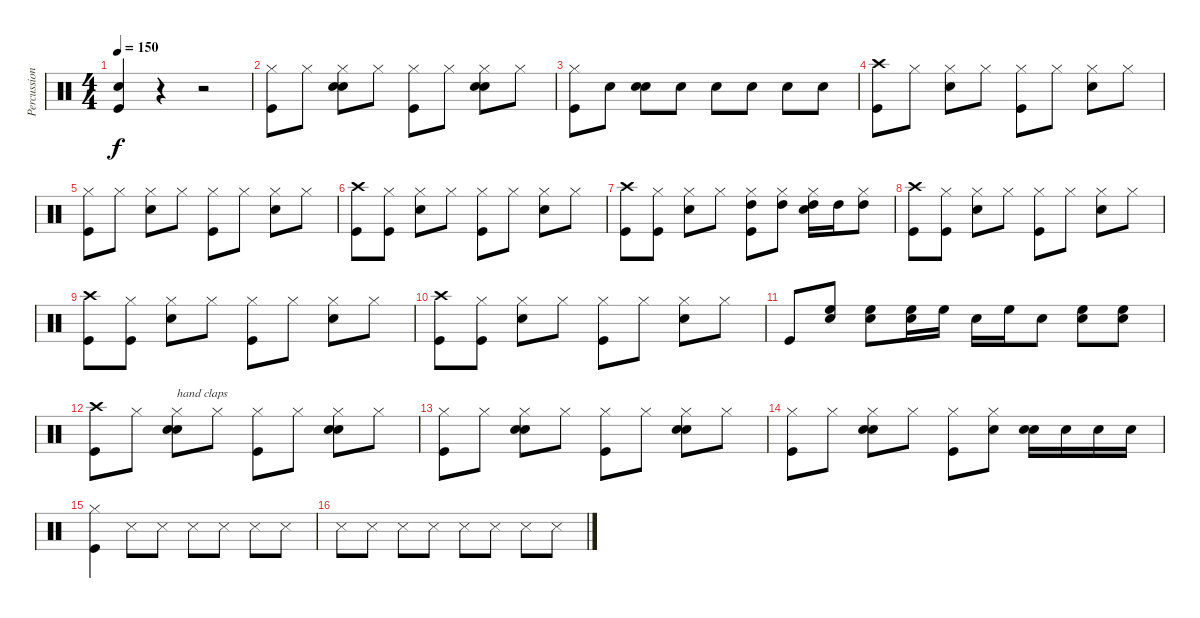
\track ("Percussion" "Percussion") {instrument percussion}
\staff {score}
\articulation defaults
\ts (4 4)
\tempo 150
\clef neutral
\ks c
("Snare (hit) 2" "Kick (hit)").4{dy f} r.4 r.2 |
("Hi-Hat (closed)" "Kick (hit)").8 "Hi-Hat (closed)".8 ("Hi-Hat (closed)" "Hand Clap (hit)" "Snare (hit) 2").8 "Hi-Hat (closed)".8 ("Hi-Hat (closed)" "Kick (hit)").8 "Hi-Hat (closed)".8 ("Hi-Hat (closed)" "Hand Clap (hit)" "Snare (hit) 2").8 "Hi-Hat (closed)".8 |
("Hi-Hat (closed)" "Kick (hit)").8 "Snare (hit) 2".8 ("Hand Clap (hit)" "Snare (hit) 2").8 "Snare (hit) 2".8 "Snare (hit) 2".8 "Snare (hit) 2".8 "Snare (hit) 2".8 "Snare (hit) 2".8 |
("Crash high (hit)" "Kick (hit)").8 "Hi-Hat (closed)".8 ("Hi-Hat (closed)" "Snare (hit) 2").8 "Hi-Hat (closed)".8 ("Hi-Hat (closed)" "Kick (hit)").8 "Hi-Hat (closed)".8 ("Hi-Hat (closed)" "Snare (hit) 2").8 "Hi-Hat (closed)".8 |
("Hi-Hat (closed)" "Kick (hit)").8 "Hi-Hat (closed)".8 ("Hi-Hat (closed)" "Snare (hit) 2").8 "Hi-Hat (closed)".8 ("Hi-Hat (closed)" "Kick (hit)").8 "Hi-Hat (closed)".8 ("Hi-Hat (closed)" "Snare (hit) 2").8 "Hi-Hat (closed)".8 |
("Crash high (hit)" "Kick (hit)").8 ("Hi-Hat (closed)" "Kick (hit)").8 ("Hi-Hat (closed)" "Snare (hit) 2").8 "Hi-Hat (closed)".8 ("Hi-Hat (closed)" "Kick (hit)").8 "Hi-Hat (closed)".8 ("Hi-Hat (closed)" "Snare (hit) 2").8 "Hi-Hat (closed)".8 |
("Crash high (hit)" "Kick (hit)").8 ("Hi-Hat (closed)" "Kick (hit)").8 ("Hi-Hat (closed)" "Snare (hit) 2").8 "Hi-Hat (closed)".8 ("Hi-Hat (closed)" "High Tom (hit)" "Kick (hit)").8 ("Hi-Hat (closed)" "High Tom (hit)").8 ("Hi-Hat (closed)" "High Tom (hit)" "Snare (hit) 2").16 "High Tom (hit)".16 ("Hi-Hat (closed)" "High Tom (hit)").8 |
("Crash high (hit)" "Kick (hit)").8 ("Hi-Hat (closed)" "Kick (hit)").8 ("Hi-Hat (closed)" "Snare (hit) 2").8 "Hi-Hat (closed)".8 ("Hi-Hat (closed)" "Kick (hit)").8 "Hi-Hat (closed)".8 ("Hi-Hat (closed)" "Snare (hit) 2").8 "Hi-Hat (closed)".8 |
("Crash high (hit)" "Kick (hit)").8 ("Hi-Hat (closed)" "Kick (hit)").8 ("Hi-Hat (closed)" "Snare (hit) 2").8 "Hi-Hat (closed)".8 ("Hi-Hat (closed)" "Kick (hit)").8 "Hi-Hat (closed)".8 ("Hi-Hat (closed)" "Snare (hit) 2").8 "Hi-Hat (closed)".8 |
("Crash high (hit)" "Kick (hit)").8 ("Hi-Hat (closed)" "Kick (hit)").8 ("Hi-Hat (closed)" "Snare (hit) 2").8 "Hi-Hat (closed)".8 ("Hi-Hat (closed)" "Kick (hit)").8 "Hi-Hat (closed)".8 ("Hi-Hat (closed)" "Snare (hit) 2").8 "Hi-Hat (closed)".8 |
"Kick (hit)".8 ("High Floor Tom (hit)" "Snare (hit) 2").8 ("High Floor Tom (hit)" "Snare (hit) 2").8 ("High Floor Tom (hit)" "Snare (hit) 2").16 "High Floor Tom (hit)".16 "Snare (hit) 2".16 "High Floor Tom (hit)".16 "Snare (hit) 2".8 ("High Floor Tom (hit)" "Snare (hit) 2").8 ("High Floor Tom (hit)" "Snare (hit) 2").8 |
("Crash high (hit)" "Kick (hit)").8 "Hi-Hat (closed)".8 ("Hi-Hat (closed)" "Hand Clap (hit)" "Snare (hit) 2").8{txt "hand claps"} "Hi-Hat (closed)".8 ("Hi-Hat (closed)" "Kick (hit)").8 "Hi-Hat (closed)".8 ("Hi-Hat (closed)" "Hand Clap (hit)" "Snare (hit) 2").8 "Hi-Hat (closed)".8 |
("Hi-Hat (closed)" "Kick (hit)").8 "Hi-Hat (closed)".8 ("Hi-Hat (closed)" "Hand Clap (hit)" "Snare (hit) 2").8 "Hi-Hat (closed)".8 ("Hi-Hat (closed)" "Kick (hit)").8 "Hi-Hat (closed)".8 ("Hi-Hat (closed)" "Hand Clap (hit)" "Snare (hit) 2").8 "Hi-Hat (closed)".8 |
("Hi-Hat (closed)" "Kick (hit)").8 "Hi-Hat (closed)".8 ("Hi-Hat (closed)" "Hand Clap (hit)" "Snare (hit) 2").8 "Hi-Hat (closed)".8 ("Hi-Hat (closed)" "Kick (hit)").8 ("Hi-Hat (closed)" "Snare (hit) 2").8 ("Hand Clap (hit)" "Snare (hit) 2").16 "Snare (hit) 2".16 "Snare (hit) 2".16 "Snare (hit) 2".16 |
("Hi-Hat (closed)" "Kick (hit)").4 "Snare (side stick) 3".8 "Snare (side stick) 3".8 "Snare (side stick) 3".8 "Snare (side stick) 3".8 "Snare (side stick) 3".8 "Snare (side stick) 3".8 |
"Snare (side stick) 3".8 "Snare (side stick) 3".8 "Snare (side stick) 3".8 "Snare (side stick) 3".8 "Snare (side stick) 3".8 "Snare (side stick) 3".8 "Snare (side stick) 3".8 "Snare (side stick) 3".8
